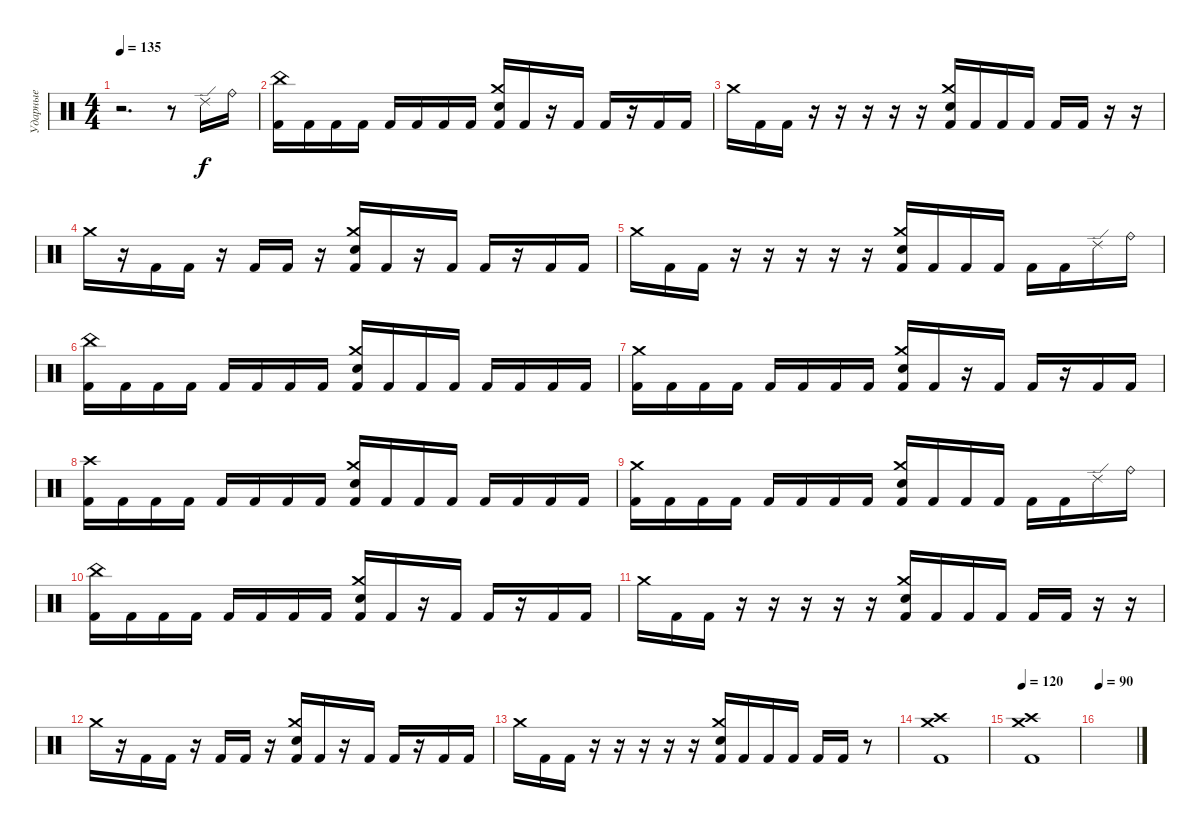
\track ("Ударные" "Ударные") {instrument percussion}
\staff
\articulation defaults
\ts (4 4)
\tempo 135
\clef neutral
\ks c
r.2{d dy f} r.8 "Ride (edge) 2".16 "Ride (bell)".16 |
("China (hit)" "Kick (hit) 2").16 "Kick (hit) 2".16 "Kick (hit) 2".16 "Kick (hit) 2".16 "Kick (hit) 2".16 "Kick (hit) 2".16 "Kick (hit) 2".16 "Kick (hit) 2".16 ("Crash medium (hit)" "Electric Snare (hit)" "Kick (hit) 2").16 "Kick (hit) 2".16 r.16 "Kick (hit) 2".16 "Kick (hit) 2".16 r.16 "Kick (hit) 2".16 "Kick (hit) 2".16 |
"Crash medium (hit)".16 "Kick (hit) 2".16 "Kick (hit) 2".16 r.16 r.16 r.16 r.16 r.16 ("Crash medium (hit)" "Electric Snare (hit)" "Kick (hit) 2").16 "Kick (hit) 2".16 "Kick (hit) 2".16 "Kick (hit) 2".16 "Kick (hit) 2".16 "Kick (hit) 2".16 r.16 r.16 |
"Crash medium (hit)".16 r.16 "Kick (hit) 2".16 "Kick (hit) 2".16 r.16 "Kick (hit) 2".16 "Kick (hit) 2".16 r.16 ("Crash medium (hit)" "Electric Snare (hit)" "Kick (hit) 2").16 "Kick (hit) 2".16 r.16 "Kick (hit) 2".16 "Kick (hit) 2".16 r.16 "Kick (hit) 2".16 "Kick (hit) 2".16 |
"Crash medium (hit)".16 "Kick (hit) 2".16 "Kick (hit) 2".16 r.16 r.16 r.16 r.16 r.16 ("Crash medium (hit)" "Electric Snare (hit)" "Kick (hit) 2").16 "Kick (hit) 2".16 "Kick (hit) 2".16 "Kick (hit) 2".16 "Kick (hit) 2".16 "Kick (hit) 2".16 "Ride (edge) 2".16 "Ride (bell)".16 |
("China (hit)" "Kick (hit) 2").16 "Kick (hit) 2".16 "Kick (hit) 2".16 "Kick (hit) 2".16 "Kick (hit) 2".16 "Kick (hit) 2".16 "Kick (hit) 2".16 "Kick (hit) 2".16 ("Crash medium (hit)" "Electric Snare (hit)" "Kick (hit) 2").16 "Kick (hit) 2".16 "Kick (hit) 2".16 "Kick (hit) 2".16 "Kick (hit) 2".16 "Kick (hit) 2".16 "Kick (hit) 2".16 "Kick (hit) 2".16 |
("Crash medium (hit)" "Kick (hit) 2").16 "Kick (hit) 2".16 "Kick (hit) 2".16 "Kick (hit) 2".16 "Kick (hit) 2".16 "Kick (hit) 2".16 "Kick (hit) 2".16 "Kick (hit) 2".16 ("Crash medium (hit)" "Electric Snare (hit)" "Kick (hit) 2").16 "Kick (hit) 2".16 r.16 "Kick (hit) 2".16 "Kick (hit) 2".16 r.16 "Kick (hit) 2".16 "Kick (hit) 2".16 |
("Crash high (hit)" "Kick (hit) 2").16 "Kick (hit) 2".16 "Kick (hit) 2".16 "Kick (hit) 2".16 "Kick (hit) 2".16 "Kick (hit) 2".16 "Kick (hit) 2".16 "Kick (hit) 2".16 ("Crash medium (hit)" "Electric Snare (hit)" "Kick (hit) 2").16 "Kick (hit) 2".16 "Kick (hit) 2".16 "Kick (hit) 2".16 "Kick (hit) 2".16 "Kick (hit) 2".16 "Kick (hit) 2".16 "Kick (hit) 2".16 |
("Crash medium (hit)" "Kick (hit) 2").16 "Kick (hit) 2".16 "Kick (hit) 2".16 "Kick (hit) 2".16 "Kick (hit) 2".16 "Kick (hit) 2".16 "Kick (hit) 2".16 "Kick (hit) 2".16 ("Crash medium (hit)" "Electric Snare (hit)" "Kick (hit) 2").16 "Kick (hit) 2".16 "Kick (hit) 2".16 "Kick (hit) 2".16 "Kick (hit) 2".16 "Kick (hit) 2".16 "Ride (edge) 2".16 "Ride (bell)".16 |
("China (hit)" "Kick (hit) 2").16 "Kick (hit) 2".16 "Kick (hit) 2".16 "Kick (hit) 2".16 "Kick (hit) 2".16 "Kick (hit) 2".16 "Kick (hit) 2".16 "Kick (hit) 2".16 ("Crash medium (hit)" "Electric Snare (hit)" "Kick (hit) 2").16 "Kick (hit) 2".16 r.16 "Kick (hit) 2".16 "Kick (hit) 2".16 r.16 "Kick (hit) 2".16 "Kick (hit) 2".16 |
"Crash medium (hit)".16 "Kick (hit) 2".16 "Kick (hit) 2".16 r.16 r.16 r.16 r.16 r.16 ("Crash medium (hit)" "Electric Snare (hit)" "Kick (hit) 2").16 "Kick (hit) 2".16 "Kick (hit) 2".16 "Kick (hit) 2".16 "Kick (hit) 2".16 "Kick (hit) 2".16 r.16 r.16 |
"Crash medium (hit)".16 r.16 "Kick (hit) 2".16 "Kick (hit) 2".16 r.16 "Kick (hit) 2".16 "Kick (hit) 2".16 r.16 ("Crash medium (hit)" "Electric Snare (hit)" "Kick (hit) 2").16 "Kick (hit) 2".16 r.16 "Kick (hit) 2".16 "Kick (hit) 2".16 r.16 "Kick (hit) 2".16 "Kick (hit) 2".16 |
"Crash medium (hit)".16 "Kick (hit) 2".16 "Kick (hit) 2".16 r.16 r.16 r.16 r.16 r.16 ("Crash medium (hit)" "Electric Snare (hit)" "Kick (hit) 2").16 "Kick (hit) 2".16 "Kick (hit) 2".16 "Kick (hit) 2".16 "Kick (hit) 2".16 "Kick (hit) 2".16 r.8 |
("Crash high (hit)" "Crash medium (hit)" "Kick (hit) 2").1 |
\tempo 120
("Crash high (hit)" "Crash medium (hit)" "Kick (hit) 2").1 |
\tempo 90
